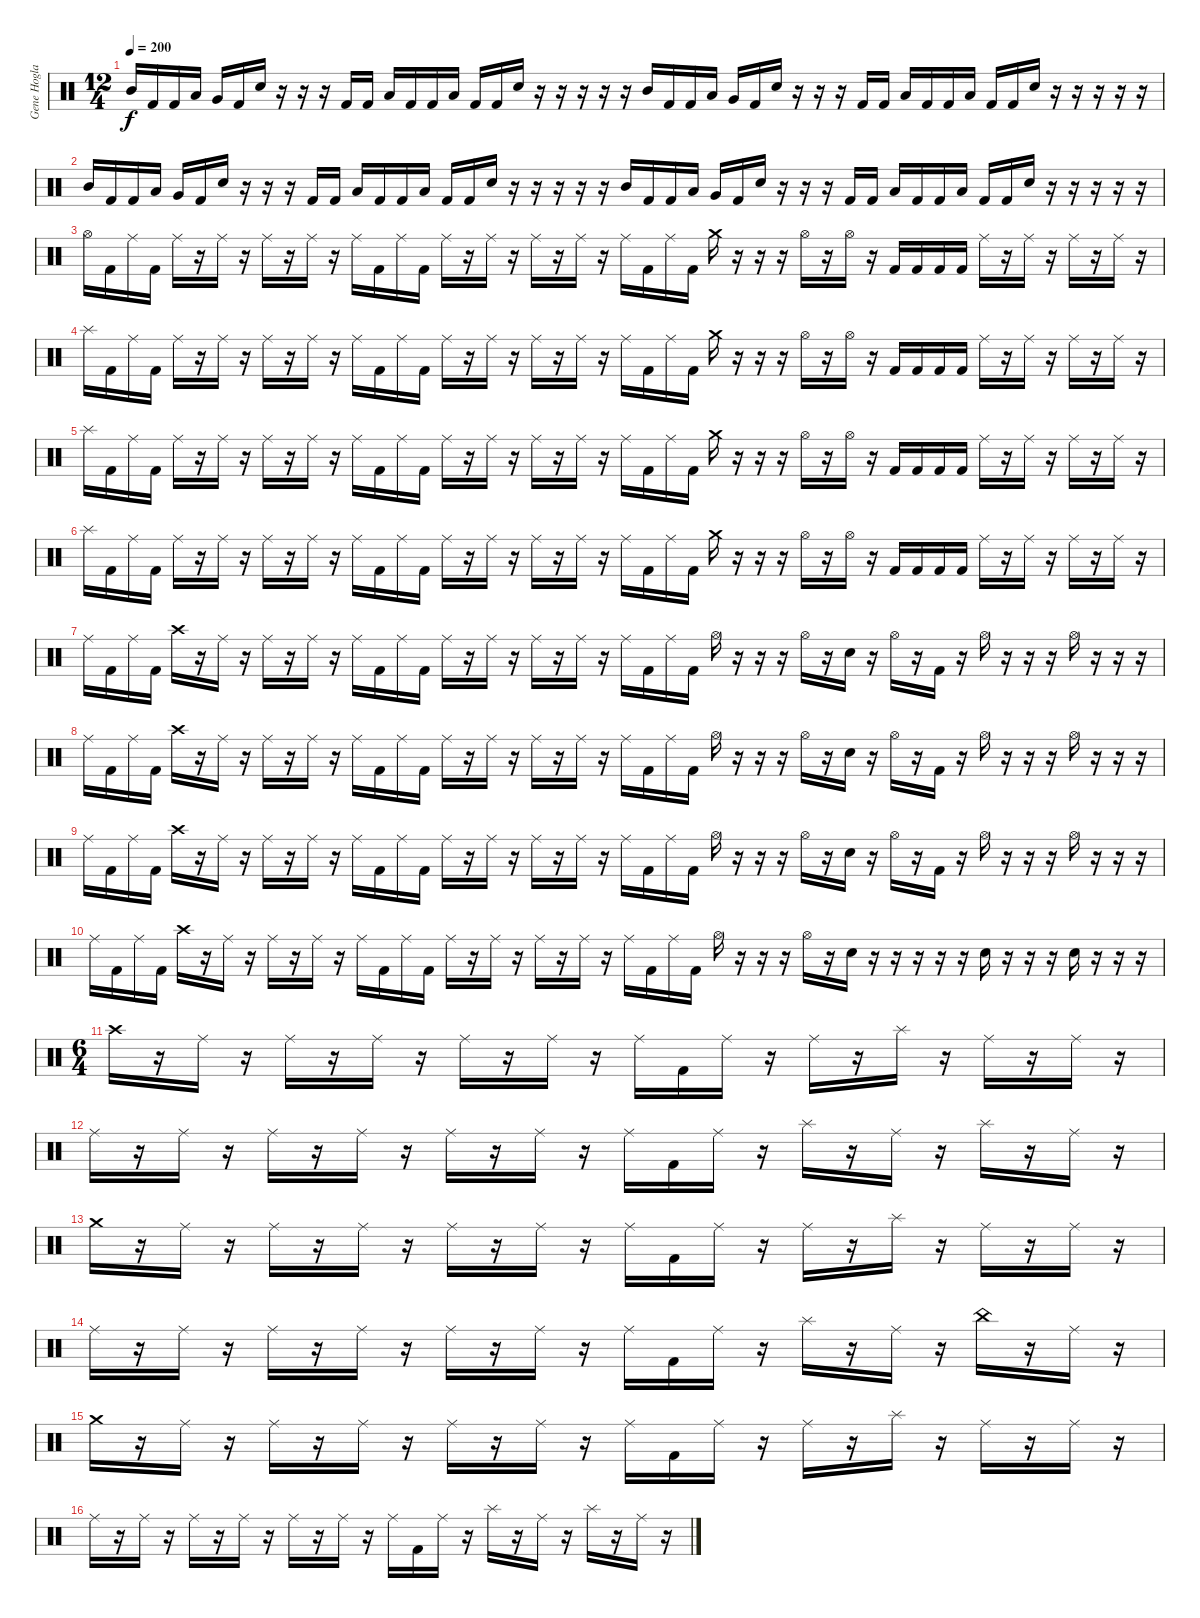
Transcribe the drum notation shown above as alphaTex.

\track ("Gene Hoglan" "Gene Hogla") {instrument percussion}
\staff {score}
\articulation defaults
\ts (12 4)
\tempo 200
\clef neutral
\ks c "Mid Tom (hit)".16{dy f} "Kick (hit) 2".16 "Kick (hit) 2".16 "Low Tom (hit)".16 "Very Low Tom (hit)".16 "Kick (hit) 2".16 "Snare (hit) 2".16
r.16 r.16 r.16 "Kick (hit) 2".16 "Kick (hit) 2".16 "Low Tom (hit)".16 "Kick (hit) 2".16 "Kick (hit) 2".16 "Low Tom (hit)".16 "Kick (hit) 2".16 "Kick (hit) 2".16 "Snare (hit) 2".16 r.16 r.16 r.16 r.16 r.16 "Mid Tom (hit)".16 "Kick (hit) 2".16 "Kick (hit) 2".16 "Low Tom (hit)".16 "Very Low Tom (hit)".16 "Kick (hit) 2".16 "Snare (hit) 2".16 r.16 r.16 r.16 "Kick (hit) 2".16 "Kick (hit) 2".16 "Low Tom (hit)".16 "Kick (hit) 2".16 "Kick (hit) 2".16 "Low Tom (hit)".16 "Kick (hit) 2".16 "Kick (hit) 2".16 "Snare (hit) 2".16 r.16 r.16 r.16 r.16 r.16 |
"Mid Tom (hit)".16 "Kick (hit) 2".16 "Kick (hit) 2".16 "Low Tom (hit)".16 "Very Low Tom (hit)".16 "Kick (hit) 2".16 "Snare (hit) 2".16 r.16 r.16 r.16 "Kick (hit) 2".16 "Kick (hit) 2".16 "Low Tom (hit)".16 "Kick (hit) 2".16 "Kick (hit) 2".16 "Low Tom (hit)".16 "Kick (hit) 2".16 "Kick (hit) 2".16 "Snare (hit) 2".16 r.16 r.16 r.16 r.16 r.16 "Mid Tom (hit)".16 "Kick (hit) 2".16 "Kick (hit) 2".16 "Low Tom (hit)".16 "Very Low Tom (hit)".16 "Kick (hit) 2".16 "Snare (hit) 2".16 r.16 r.16 r.16 "Kick (hit) 2".16 "Kick (hit) 2".16 "Low Tom (hit)".16 "Kick (hit) 2".16 "Kick (hit) 2".16 "Low Tom (hit)".16 "Kick (hit) 2".16 "Kick (hit) 2".16 "Snare (hit) 2".16 r.16 r.16 r.16 r.16 r.16 |
"Hi-Hat (open)".16 "Kick (hit) 2".16 "Ride (middle)".16 "Kick (hit) 2".16 "Ride (middle)".16 r.16 "Ride (middle)".16 r.16 "Ride (middle)".16 r.16 "Ride (middle)".16 r.16 "Ride (middle)".16 "Kick (hit) 2".16 "Ride (middle)".16 "Kick (hit) 2".16 "Ride (middle)".16 r.16 "Ride (middle)".16 r.16 "Ride (middle)".16 r.16 "Ride (middle)".16 r.16 "Ride (middle)".16 "Kick (hit) 2".16 "Ride (middle)".16 "Kick (hit) 2".16 "Crash medium (hit)".16 r.16 r.16 r.16 "Hi-Hat (open)".16 r.16 "Hi-Hat (open)".16 r.16 "Kick (hit) 2".16 "Kick (hit) 2".16 "Kick (hit) 2".16 "Kick (hit) 2".16 "Ride (middle)".16 r.16 "Ride (middle)".16 r.16 "Ride (middle)".16 r.16 "Ride (middle)".16 r.16 |
"Splash (hit)".16 "Kick (hit) 2".16 "Ride (middle)".16 "Kick (hit) 2".16 "Ride (middle)".16 r.16 "Ride (middle)".16 r.16 "Ride (middle)".16 r.16 "Ride (middle)".16 r.16 "Ride (middle)".16 "Kick (hit) 2".16 "Ride (middle)".16 "Kick (hit) 2".16 "Ride (middle)".16 r.16 "Ride (middle)".16 r.16 "Ride (middle)".16 r.16 "Ride (middle)".16 r.16 "Ride (middle)".16 "Kick (hit) 2".16 "Ride (middle)".16 "Kick (hit) 2".16 "Crash medium (hit)".16 r.16 r.16 r.16 "Hi-Hat (open)".16 r.16 "Hi-Hat (open)".16 r.16 "Kick (hit) 2".16 "Kick (hit) 2".16 "Kick (hit) 2".16 "Kick (hit) 2".16 "Ride (middle)".16 r.16 "Ride (middle)".16 r.16 "Ride (middle)".16 r.16 "Ride (middle)".16 r.16 |
"Splash (hit)".16 "Kick (hit) 2".16 "Ride (middle)".16 "Kick (hit) 2".16 "Ride (middle)".16 r.16 "Ride (middle)".16 r.16 "Ride (middle)".16 r.16 "Ride (middle)".16 r.16 "Ride (middle)".16 "Kick (hit) 2".16 "Ride (middle)".16 "Kick (hit) 2".16 "Ride (middle)".16 r.16 "Ride (middle)".16 r.16 "Ride (middle)".16 r.16 "Ride (middle)".16 r.16 "Ride (middle)".16 "Kick (hit) 2".16 "Ride (middle)".16 "Kick (hit) 2".16 "Crash medium (hit)".16 r.16 r.16 r.16 "Hi-Hat (open)".16 r.16 "Hi-Hat (open)".16 r.16 "Kick (hit) 2".16 "Kick (hit) 2".16 "Kick (hit) 2".16 "Kick (hit) 2".16 "Ride (middle)".16 r.16 "Ride (middle)".16 r.16 "Ride (middle)".16 r.16 "Ride (middle)".16 r.16 |
"Splash (hit)".16 "Kick (hit) 2".16 "Ride (middle)".16 "Kick (hit) 2".16 "Ride (middle)".16 r.16 "Ride (middle)".16 r.16 "Ride (middle)".16 r.16 "Ride (middle)".16 r.16 "Ride (middle)".16 "Kick (hit) 2".16 "Ride (middle)".16 "Kick (hit) 2".16 "Ride (middle)".16 r.16 "Ride (middle)".16 r.16 "Ride (middle)".16 r.16 "Ride (middle)".16 r.16 "Ride (middle)".16 "Kick (hit) 2".16 "Ride (middle)".16 "Kick (hit) 2".16 "Crash medium (hit)".16 r.16 r.16 r.16 "Hi-Hat (open)".16 r.16 "Hi-Hat (open)".16 r.16 "Kick (hit) 2".16 "Kick (hit) 2".16 "Kick (hit) 2".16 "Kick (hit) 2".16 "Ride (middle)".16 r.16 "Ride (middle)".16 r.16 "Ride (middle)".16 r.16 "Ride (middle)".16 r.16 |
"Ride (middle)".16 "Kick (hit) 2".16 "Ride (middle)".16 "Kick (hit) 2".16 "Crash high (hit)".16 r.16 "Ride (middle)".16 r.16 "Ride (middle)".16 r.16 "Ride (middle)".16 r.16 "Ride (middle)".16 "Kick (hit) 2".16 "Ride (middle)".16 "Kick (hit) 2".16 "Ride (middle)".16 r.16 "Ride (middle)".16 r.16 "Ride (middle)".16 r.16 "Ride (middle)".16 r.16 "Ride (middle)".16 "Kick (hit) 2".16 "Ride (middle)".16 "Kick (hit) 2".16 "Hi-Hat (open)".16 r.16 r.16 r.16 "Hi-Hat (open)".16 r.16 "Snare (hit) 2".16 r.16 "Hi-Hat (open)".16 r.16 "Kick (hit) 2".16 r.16 "Hi-Hat (open)".16 r.16 r.16 r.16 "Hi-Hat (open)".16 r.16 r.16 r.16 |
"Ride (middle)".16 "Kick (hit) 2".16 "Ride (middle)".16 "Kick (hit) 2".16 "Crash high (hit)".16 r.16 "Ride (middle)".16 r.16 "Ride (middle)".16 r.16 "Ride (middle)".16 r.16 "Ride (middle)".16 "Kick (hit) 2".16 "Ride (middle)".16 "Kick (hit) 2".16 "Ride (middle)".16 r.16 "Ride (middle)".16 r.16 "Ride (middle)".16 r.16 "Ride (middle)".16 r.16 "Ride (middle)".16 "Kick (hit) 2".16 "Ride (middle)".16 "Kick (hit) 2".16 "Hi-Hat (open)".16 r.16 r.16 r.16 "Hi-Hat (open)".16 r.16 "Snare (hit) 2".16 r.16 "Hi-Hat (open)".16 r.16 "Kick (hit) 2".16 r.16 "Hi-Hat (open)".16 r.16 r.16 r.16 "Hi-Hat (open)".16 r.16 r.16 r.16 |
"Ride (middle)".16 "Kick (hit) 2".16 "Ride (middle)".16 "Kick (hit) 2".16 "Crash high (hit)".16 r.16 "Ride (middle)".16 r.16 "Ride (middle)".16 r.16 "Ride (middle)".16 r.16 "Ride (middle)".16 "Kick (hit) 2".16 "Ride (middle)".16 "Kick (hit) 2".16 "Ride (middle)".16 r.16 "Ride (middle)".16 r.16 "Ride (middle)".16 r.16 "Ride (middle)".16 r.16 "Ride (middle)".16 "Kick (hit) 2".16 "Ride (middle)".16 "Kick (hit) 2".16 "Hi-Hat (open)".16 r.16 r.16 r.16 "Hi-Hat (open)".16 r.16 "Snare (hit) 2".16 r.16 "Hi-Hat (open)".16 r.16 "Kick (hit) 2".16 r.16 "Hi-Hat (open)".16 r.16 r.16 r.16 "Hi-Hat (open)".16 r.16 r.16 r.16 |
"Ride (middle)".16 "Kick (hit) 2".16 "Ride (middle)".16 "Kick (hit) 2".16 "Crash high (hit)".16 r.16 "Ride (middle)".16 r.16 "Ride (middle)".16 r.16 "Ride (middle)".16 r.16 "Ride (middle)".16 "Kick (hit) 2".16 "Ride (middle)".16 "Kick (hit) 2".16 "Ride (middle)".16 r.16 "Ride (middle)".16 r.16 "Ride (middle)".16 r.16 "Ride (middle)".16 r.16 "Ride (middle)".16 "Kick (hit) 2".16 "Ride (middle)".16 "Kick (hit) 2".16 "Hi-Hat (open)".16 r.16 r.16 r.16 "Hi-Hat (open)".16 r.16 "Snare (hit) 2".16 r.16 r.16 r.16 r.16 r.16 "Snare (hit) 2".16 r.16 r.16 r.16 "Snare (hit) 2".16 r.16 r.16 r.16 |
\ts (6 4)
"Crash high (hit)".16 r.16 "Ride (middle)".16 r.16 "Ride (middle)".16 r.16 "Ride (middle)".16 r.16 "Ride (middle)".16 r.16 "Ride (middle)".16 r.16 "Ride (middle)".16 "Kick (hit) 2".16 "Ride (middle)".16 r.16 "Ride (middle)".16 r.16 "Splash (hit)".16 r.16 "Ride (middle)".16 r.16 "Ride (middle)".16 r.16 |
"Ride (middle)".16 r.16 "Ride (middle)".16 r.16 "Ride (middle)".16 r.16 "Ride (middle)".16 r.16 "Ride (middle)".16 r.16 "Ride (middle)".16 r.16 "Ride (middle)".16 "Kick (hit) 2".16 "Ride (middle)".16 r.16 "Splash (hit)".16 r.16 "Ride (middle)".16 r.16 "Splash (hit)".16 r.16 "Ride (middle)".16 r.16 |
"Crash medium (hit)".16 r.16 "Ride (middle)".16 r.16 "Ride (middle)".16 r.16 "Ride (middle)".16 r.16 "Ride (middle)".16 r.16 "Ride (middle)".16 r.16 "Ride (middle)".16 "Kick (hit) 2".16 "Ride (middle)".16 r.16 "Ride (middle)".16 r.16 "Splash (hit)".16 r.16 "Ride (middle)".16 r.16 "Ride (middle)".16 r.16 |
"Ride (middle)".16 r.16 "Ride (middle)".16 r.16 "Ride (middle)".16 r.16 "Ride (middle)".16 r.16 "Ride (middle)".16 r.16 "Ride (middle)".16 r.16 "Ride (middle)".16 "Kick (hit) 2".16 "Ride (middle)".16 r.16 "Splash (hit)".16 r.16 "Ride (middle)".16 r.16 "China (hit)".16 r.16 "Ride (middle)".16 r.16 |
"Crash medium (hit)".16 r.16 "Ride (middle)".16 r.16 "Ride (middle)".16 r.16 "Ride (middle)".16 r.16 "Ride (middle)".16 r.16 "Ride (middle)".16 r.16 "Ride (middle)".16 "Kick (hit) 2".16 "Ride (middle)".16 r.16 "Ride (middle)".16 r.16 "Splash (hit)".16 r.16 "Ride (middle)".16 r.16 "Ride (middle)".16 r.16 |
"Ride (middle)".16 r.16 "Ride (middle)".16 r.16 "Ride (middle)".16 r.16 "Ride (middle)".16 r.16 "Ride (middle)".16 r.16 "Ride (middle)".16 r.16 "Ride (middle)".16 "Kick (hit) 2".16 "Ride (middle)".16 r.16 "Splash (hit)".16 r.16 "Ride (middle)".16 r.16 "Splash (hit)".16 r.16 "Ride (middle)".16 r.16
